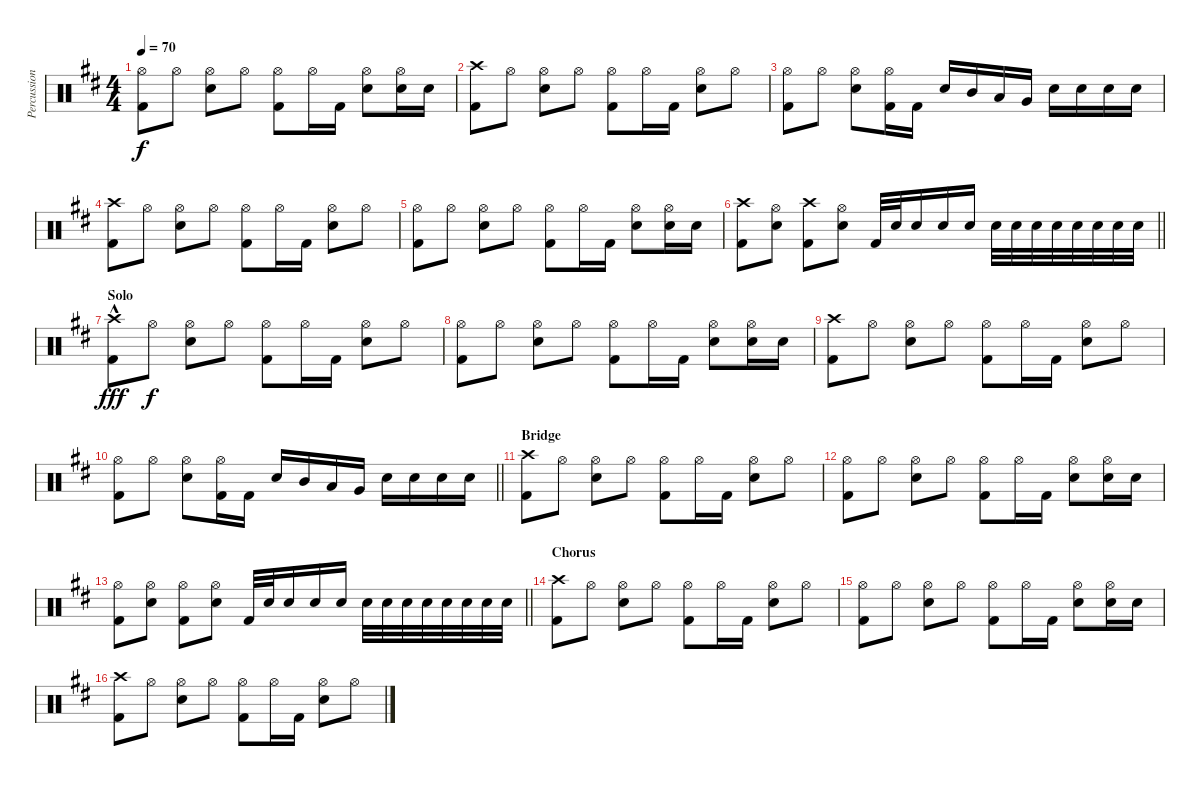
\track ("Percussion" "Percussion") {instrument percussion}
\staff {score}
\articulation defaults
\ts (4 4)
\tempo 70
\clef neutral
\ks d
("Hi-Hat (open)" "Kick (hit) 2").8{dy f} "Hi-Hat (open)".8 ("Hi-Hat (open)" "Snare (hit) 2").8 "Hi-Hat (open)".8 ("Hi-Hat (open)" "Kick (hit) 2").8 "Hi-Hat (open)".16 "Kick (hit) 2".16 ("Hi-Hat (open)" "Snare (hit) 2").8 ("Hi-Hat (open)" "Snare (hit) 2").16 "Snare (hit) 2".16 |
("Crash high (hit)" "Kick (hit) 2").8 "Hi-Hat (open)".8 ("Hi-Hat (open)" "Snare (hit) 2").8 "Hi-Hat (open)".8 ("Hi-Hat (open)" "Kick (hit) 2").8 "Hi-Hat (open)".16 "Kick (hit) 2".16 ("Hi-Hat (open)" "Snare (hit) 2").8 "Hi-Hat (open)".8 |
("Hi-Hat (open)" "Kick (hit) 2").8 "Hi-Hat (open)".8 ("Hi-Hat (open)" "Snare (hit) 2").8 ("Hi-Hat (open)" "Kick (hit) 2").16 "Kick (hit) 2".16 "Snare (hit) 2".16 "Mid Tom (hit)".16 "Low Tom (hit)".16 "Very Low Tom (hit)".16 "Snare (hit) 2".16 "Snare (hit) 2".16 "Snare (hit) 2".16 "Snare (hit) 2".16 |
("Crash high (hit)" "Kick (hit) 2").8 "Hi-Hat (open)".8 ("Hi-Hat (open)" "Snare (hit) 2").8 "Hi-Hat (open)".8 ("Hi-Hat (open)" "Kick (hit) 2").8 "Hi-Hat (open)".16 "Kick (hit) 2".16 ("Hi-Hat (open)" "Snare (hit) 2").8 "Hi-Hat (open)".8 |
("Hi-Hat (open)" "Kick (hit) 2").8 "Hi-Hat (open)".8 ("Hi-Hat (open)" "Snare (hit) 2").8 "Hi-Hat (open)".8 ("Hi-Hat (open)" "Kick (hit) 2").8 "Hi-Hat (open)".16 "Kick (hit) 2".16 ("Hi-Hat (open)" "Snare (hit) 2").8 ("Hi-Hat (open)" "Snare (hit) 2").16 "Snare (hit) 2".16 |
\barLineRight lightlight
("Crash high (hit)" "Kick (hit) 2").8 ("Hi-Hat (open)" "Snare (hit) 2").8 ("Crash high (hit)" "Kick (hit) 2").8 ("Hi-Hat (open)" "Snare (hit) 2").8 "Kick (hit) 2".32 "Snare (hit) 2".32 "Snare (hit) 2".16 "Snare (hit) 2".16 "Snare (hit) 2".16 "Snare (hit) 2".32 "Snare (hit) 2".32 "Snare (hit) 2".32 "Snare (hit) 2".32 "Snare (hit) 2".32 "Snare (hit) 2".32 "Snare (hit) 2".32 "Snare (hit) 2".32 |
\section ("" "Solo")
("Crash high (hit)" "Kick (hit) 2"{hac}).8{dy fff} "Hi-Hat (open)".8{dy f} ("Hi-Hat (open)" "Snare (hit) 2").8 "Hi-Hat (open)".8 ("Hi-Hat (open)" "Kick (hit) 2").8 "Hi-Hat (open)".16 "Kick (hit) 2".16 ("Hi-Hat (open)" "Snare (hit) 2").8 "Hi-Hat (open)".8 |
("Hi-Hat (open)" "Kick (hit) 2").8 "Hi-Hat (open)".8 ("Hi-Hat (open)" "Snare (hit) 2").8 "Hi-Hat (open)".8 ("Hi-Hat (open)" "Kick (hit) 2").8 "Hi-Hat (open)".16 "Kick (hit) 2".16 ("Hi-Hat (open)" "Snare (hit) 2").8 ("Hi-Hat (open)" "Snare (hit) 2").16 "Snare (hit) 2".16 |
("Crash high (hit)" "Kick (hit) 2").8 "Hi-Hat (open)".8 ("Hi-Hat (open)" "Snare (hit) 2").8 "Hi-Hat (open)".8 ("Hi-Hat (open)" "Kick (hit) 2").8 "Hi-Hat (open)".16 "Kick (hit) 2".16 ("Hi-Hat (open)" "Snare (hit) 2").8 "Hi-Hat (open)".8 |
\barLineRight lightlight
("Hi-Hat (open)" "Kick (hit) 2").8 "Hi-Hat (open)".8 ("Hi-Hat (open)" "Snare (hit) 2").8 ("Hi-Hat (open)" "Kick (hit) 2").16 "Kick (hit) 2".16 "Snare (hit) 2".16 "Mid Tom (hit)".16 "Low Tom (hit)".16 "Very Low Tom (hit)".16 "Snare (hit) 2".16 "Snare (hit) 2".16 "Snare (hit) 2".16 "Snare (hit) 2".16 |
\section ("" "Bridge")
("Crash high (hit)" "Kick (hit) 2").8 "Hi-Hat (open)".8 ("Hi-Hat (open)" "Snare (hit) 2").8 "Hi-Hat (open)".8 ("Hi-Hat (open)" "Kick (hit) 2").8 "Hi-Hat (open)".16 "Kick (hit) 2".16 ("Hi-Hat (open)" "Snare (hit) 2").8 "Hi-Hat (open)".8 |
("Hi-Hat (open)" "Kick (hit) 2").8 "Hi-Hat (open)".8 ("Hi-Hat (open)" "Snare (hit) 2").8 "Hi-Hat (open)".8 ("Hi-Hat (open)" "Kick (hit) 2").8 "Hi-Hat (open)".16 "Kick (hit) 2".16 ("Hi-Hat (open)" "Snare (hit) 2").8 ("Hi-Hat (open)" "Snare (hit) 2").16 "Snare (hit) 2".16 |
\barLineRight lightlight
("Hi-Hat (open)" "Kick (hit) 2").8 ("Hi-Hat (open)" "Snare (hit) 2").8 ("Hi-Hat (open)" "Kick (hit) 2").8 ("Hi-Hat (open)" "Snare (hit) 2").8 "Kick (hit) 2".32 "Snare (hit) 2".32 "Snare (hit) 2".16 "Snare (hit) 2".16 "Snare (hit) 2".16 "Snare (hit) 2".32 "Snare (hit) 2".32 "Snare (hit) 2".32 "Snare (hit) 2".32 "Snare (hit) 2".32 "Snare (hit) 2".32 "Snare (hit) 2".32 "Snare (hit) 2".32 |
\section ("" "Chorus")
("Crash high (hit)" "Kick (hit) 2").8 "Hi-Hat (open)".8 ("Hi-Hat (open)" "Snare (hit) 2").8 "Hi-Hat (open)".8 ("Hi-Hat (open)" "Kick (hit) 2").8 "Hi-Hat (open)".16 "Kick (hit) 2".16 ("Hi-Hat (open)" "Snare (hit) 2").8 "Hi-Hat (open)".8 |
("Hi-Hat (open)" "Kick (hit) 2").8 "Hi-Hat (open)".8 ("Hi-Hat (open)" "Snare (hit) 2").8 "Hi-Hat (open)".8 ("Hi-Hat (open)" "Kick (hit) 2").8 "Hi-Hat (open)".16 "Kick (hit) 2".16 ("Hi-Hat (open)" "Snare (hit) 2").8 ("Hi-Hat (open)" "Snare (hit) 2").16 "Snare (hit) 2".16 |
("Crash high (hit)" "Kick (hit) 2").8 "Hi-Hat (open)".8 ("Hi-Hat (open)" "Snare (hit) 2").8 "Hi-Hat (open)".8 ("Hi-Hat (open)" "Kick (hit) 2").8 "Hi-Hat (open)".16 "Kick (hit) 2".16 ("Hi-Hat (open)" "Snare (hit) 2").8 "Hi-Hat (open)".8
